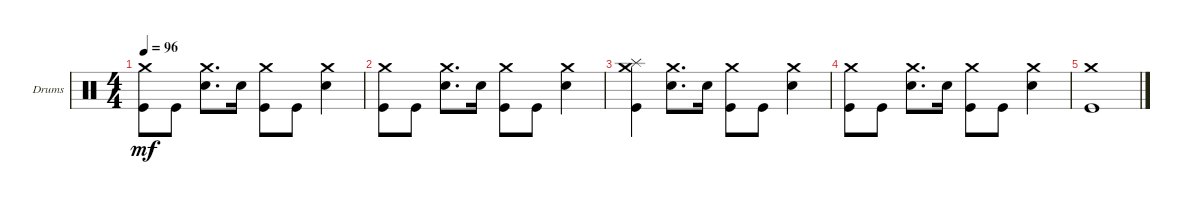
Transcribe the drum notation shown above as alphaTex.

\defaultSystemsLayout 4
\bracketExtendMode groupsimilarinstruments
\firstSystemTrackNameOrientation horizontal
\otherSystemsTrackNameOrientation horizontal
\track ("Tico" "Drums") {instrument percussion}
\staff {score}
\articulation defaults
\ts (4 4)
\tempo 96
\clef neutral
\ks c
("Kick (hit)" "Crash medium (hit)").8{dy mf} "Kick (hit)".8 ("Snare (hit) 2" "Crash medium (hit)").8{d} "Snare (hit) 2".16 ("Kick (hit)" "Crash medium (hit)").8 "Kick (hit)".8 ("Snare (hit) 2" "Crash medium (hit)").4 |
("Kick (hit)" "Crash medium (hit)").8 "Kick (hit)".8 ("Snare (hit) 2" "Crash medium (hit)").8{d} "Snare (hit) 2".16 ("Kick (hit)" "Crash medium (hit)").8 "Kick (hit)".8 ("Snare (hit) 2" "Crash medium (hit)").4 |
("Kick (hit)" "Splash (hit)" "Crash medium (hit)").4 ("Snare (hit) 2" "Crash medium (hit)").8{d} "Snare (hit) 2".16 ("Kick (hit)" "Crash medium (hit)").8 "Kick (hit)".8 ("Snare (hit) 2" "Crash medium (hit)").4 |
("Kick (hit)" "Crash medium (hit)").8 "Kick (hit)".8 ("Snare (hit) 2" "Crash medium (hit)").8{d} "Snare (hit) 2".16 ("Kick (hit)" "Crash medium (hit)").8 "Kick (hit)".8 ("Snare (hit) 2" "Crash medium (hit)").4 |
("Kick (hit)" "Crash medium (hit)").1
